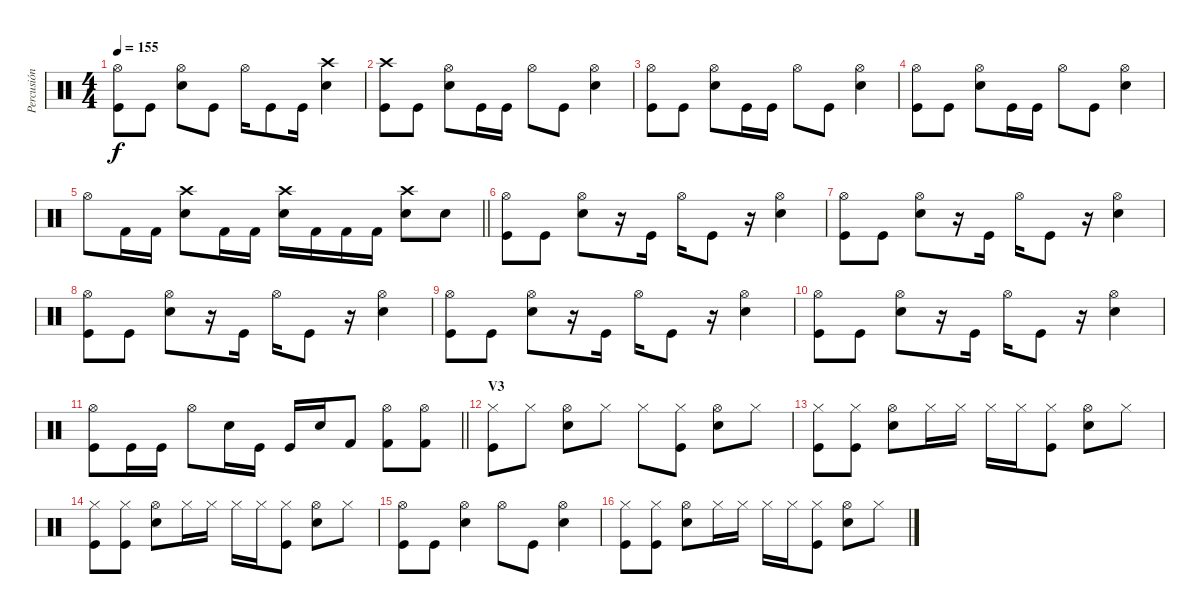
\track ("Percusión" "Percusión") {instrument percussion}
\staff {score}
\articulation defaults
\ts (4 4)
\tempo 155
\clef neutral
\ks c
("Hi-Hat (open)" "Kick (hit)").8{dy f} "Kick (hit)".8 ("Hi-Hat (open)" "Snare (hit) 2").8 "Kick (hit)".8 "Hi-Hat (open)".16 "Kick (hit)".8 "Kick (hit)".16 ("Crash high (hit)" "Snare (hit) 2").4 |
("Crash high (hit)" "Kick (hit)").8 "Kick (hit)".8 ("Hi-Hat (open)" "Snare (hit) 2").8 "Kick (hit)".16 "Kick (hit)".16 "Hi-Hat (open)".8 "Kick (hit)".8 ("Hi-Hat (open)" "Snare (hit) 2").4 |
("Hi-Hat (open)" "Kick (hit)").8 "Kick (hit)".8 ("Hi-Hat (open)" "Snare (hit) 2").8 "Kick (hit)".16 "Kick (hit)".16 "Hi-Hat (open)".8 "Kick (hit)".8 ("Hi-Hat (open)" "Snare (hit) 2").4 |
("Hi-Hat (open)" "Kick (hit)").8 "Kick (hit)".8 ("Hi-Hat (open)" "Snare (hit) 2").8 "Kick (hit)".16 "Kick (hit)".16 "Hi-Hat (open)".8 "Kick (hit)".8 ("Hi-Hat (open)" "Snare (hit) 2").4 |
\barLineRight lightlight "Hi-Hat (open)".8 "Kick (hit) 2".16 "Kick (hit) 2".16
("Crash high (hit)" "Snare (hit) 2").8 "Kick (hit) 2".16 "Kick (hit) 2".16 ("Crash high (hit)" "Snare (hit) 2").16 "Kick (hit) 2".16 "Kick (hit) 2".16 "Kick (hit) 2".16 ("Crash high (hit)" "Snare (hit) 2").8 "Snare (hit) 2".8 |
("Hi-Hat (open)" "Kick (hit)").8 "Kick (hit)".8 ("Hi-Hat (open)" "Snare (hit) 2").8 r.16 "Kick (hit)".16 "Hi-Hat (open)".16 "Kick (hit)".8 r.16 ("Hi-Hat (open)" "Snare (hit) 2").4 |
("Hi-Hat (open)" "Kick (hit)").8 "Kick (hit)".8 ("Hi-Hat (open)" "Snare (hit) 2").8 r.16 "Kick (hit)".16 "Hi-Hat (open)".16 "Kick (hit)".8 r.16 ("Hi-Hat (open)" "Snare (hit) 2").4 |
("Hi-Hat (open)" "Kick (hit)").8 "Kick (hit)".8 ("Hi-Hat (open)" "Snare (hit) 2").8 r.16 "Kick (hit)".16 "Hi-Hat (open)".16 "Kick (hit)".8 r.16 ("Hi-Hat (open)" "Snare (hit) 2").4 |
("Hi-Hat (open)" "Kick (hit)").8 "Kick (hit)".8 ("Hi-Hat (open)" "Snare (hit) 2").8 r.16 "Kick (hit)".16 "Hi-Hat (open)".16 "Kick (hit)".8 r.16 ("Hi-Hat (open)" "Snare (hit) 2").4 |
("Hi-Hat (open)" "Kick (hit)").8 "Kick (hit)".8 ("Hi-Hat (open)" "Snare (hit) 2").8 r.16 "Kick (hit)".16 "Hi-Hat (open)".16 "Kick (hit)".8 r.16 ("Hi-Hat (open)" "Snare (hit) 2").4 |
\barLineRight lightlight
("Hi-Hat (open)" "Kick (hit)").8 "Kick (hit)".16 "Kick (hit)".16 "Hi-Hat (open)".8 "Snare (hit) 2".16 "Kick (hit)".16 "Kick (hit)".16 "Snare (hit) 2".16 "Kick (hit) 2".8 ("Hi-Hat (open)" "Kick (hit) 2").8 ("Hi-Hat (open)" "Kick (hit) 2").8 |
\section ("" "V3")
("Hi-Hat (closed)" "Kick (hit)").8 "Hi-Hat (closed)".8 ("Hi-Hat (open)" "Snare (hit) 2").8 "Hi-Hat (closed)".8 "Hi-Hat (closed)".8 ("Hi-Hat (closed)" "Kick (hit)").8 ("Hi-Hat (open)" "Snare (hit) 2").8 "Hi-Hat (closed)".8 |
("Hi-Hat (closed)" "Kick (hit)").8 ("Hi-Hat (closed)" "Kick (hit)").8 ("Hi-Hat (open)" "Snare (hit) 2").8 "Hi-Hat (closed)".16 "Hi-Hat (closed)".16 "Hi-Hat (closed)".16 "Hi-Hat (closed)".16 ("Hi-Hat (closed)" "Kick (hit)").8 ("Hi-Hat (open)" "Snare (hit) 2").8 "Hi-Hat (closed)".8 |
("Hi-Hat (closed)" "Kick (hit)").8 ("Hi-Hat (closed)" "Kick (hit)").8 ("Hi-Hat (open)" "Snare (hit) 2").8 "Hi-Hat (closed)".16 "Hi-Hat (closed)".16 "Hi-Hat (closed)".16 "Hi-Hat (closed)".16 ("Hi-Hat (closed)" "Kick (hit)").8 ("Hi-Hat (open)" "Snare (hit) 2").8 "Hi-Hat (closed)".8 |
("Hi-Hat (open)" "Kick (hit)").8 "Kick (hit)".8 ("Hi-Hat (open)" "Snare (hit) 2").4 "Hi-Hat (open)".8 "Kick (hit)".8 ("Hi-Hat (open)" "Snare (hit) 2").4 |
("Hi-Hat (closed)" "Kick (hit)").8 ("Hi-Hat (closed)" "Kick (hit)").8 ("Hi-Hat (open)" "Snare (hit) 2").8 "Hi-Hat (closed)".16 "Hi-Hat (closed)".16 "Hi-Hat (closed)".16 "Hi-Hat (closed)".16 ("Hi-Hat (closed)" "Kick (hit)").8 ("Hi-Hat (open)" "Snare (hit) 2").8 "Hi-Hat (closed)".8
